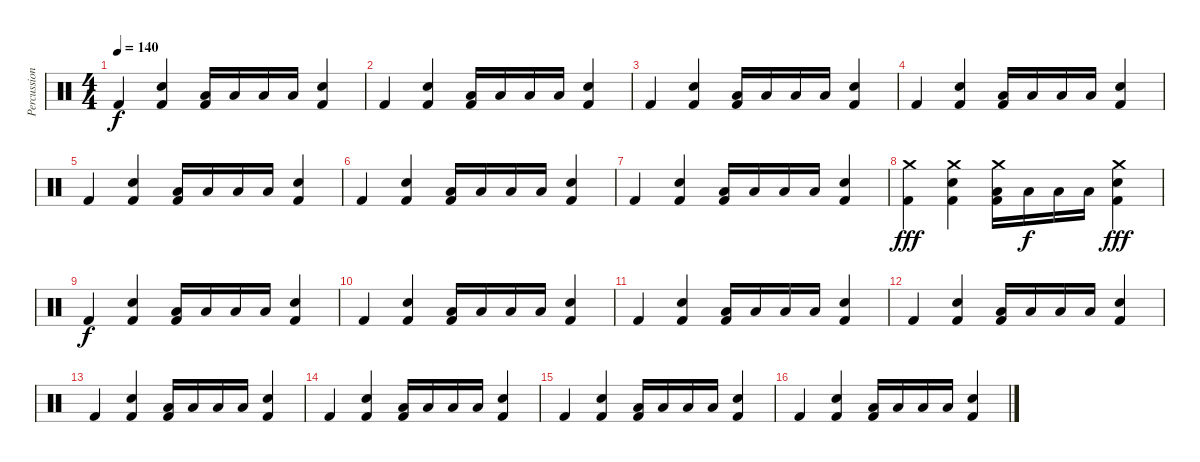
\track ("Percussion" "Percussion") {instrument percussion}
\staff {score}
\articulation defaults
\ts (4 4)
\tempo 140
\clef neutral
\ks c "Kick (hit) 2".4{dy f}
("Snare (hit) 2" "Kick (hit) 2").4 ("Low Tom (hit)" "Kick (hit) 2").16 "Low Tom (hit)".16 "Low Tom (hit)".16 "Low Tom (hit)".16 ("Snare (hit) 2" "Kick (hit) 2").4 |
"Kick (hit) 2".4 ("Snare (hit) 2" "Kick (hit) 2").4 ("Low Tom (hit)" "Kick (hit) 2").16 "Low Tom (hit)".16 "Low Tom (hit)".16 "Low Tom (hit)".16 ("Snare (hit) 2" "Kick (hit) 2").4 |
"Kick (hit) 2".4 ("Snare (hit) 2" "Kick (hit) 2").4 ("Low Tom (hit)" "Kick (hit) 2").16 "Low Tom (hit)".16 "Low Tom (hit)".16 "Low Tom (hit)".16 ("Snare (hit) 2" "Kick (hit) 2").4 |
"Kick (hit) 2".4 ("Snare (hit) 2" "Kick (hit) 2").4 ("Low Tom (hit)" "Kick (hit) 2").16 "Low Tom (hit)".16 "Low Tom (hit)".16 "Low Tom (hit)".16 ("Snare (hit) 2" "Kick (hit) 2").4 |
"Kick (hit) 2".4 ("Snare (hit) 2" "Kick (hit) 2").4 ("Low Tom (hit)" "Kick (hit) 2").16 "Low Tom (hit)".16 "Low Tom (hit)".16 "Low Tom (hit)".16 ("Snare (hit) 2" "Kick (hit) 2").4 |
"Kick (hit) 2".4 ("Snare (hit) 2" "Kick (hit) 2").4 ("Low Tom (hit)" "Kick (hit) 2").16 "Low Tom (hit)".16 "Low Tom (hit)".16 "Low Tom (hit)".16 ("Snare (hit) 2" "Kick (hit) 2").4 |
"Kick (hit) 2".4 ("Snare (hit) 2" "Kick (hit) 2").4 ("Low Tom (hit)" "Kick (hit) 2").16 "Low Tom (hit)".16 "Low Tom (hit)".16 "Low Tom (hit)".16 ("Snare (hit) 2" "Kick (hit) 2").4 |
("Crash medium (hit)" "Kick (hit) 2").4{dy fff} ("Crash medium (hit)" "Snare (hit) 2" "Kick (hit) 2").4 ("Crash medium (hit)" "Low Tom (hit)" "Kick (hit) 2").16 "Low Tom (hit)".16{dy f} "Low Tom (hit)".16 "Low Tom (hit)".16 ("Crash medium (hit)" "Snare (hit) 2" "Kick (hit) 2").4{dy fff} |
"Kick (hit) 2".4{dy f} ("Snare (hit) 2" "Kick (hit) 2").4 ("Low Tom (hit)" "Kick (hit) 2").16 "Low Tom (hit)".16 "Low Tom (hit)".16 "Low Tom (hit)".16 ("Snare (hit) 2" "Kick (hit) 2").4 |
"Kick (hit) 2".4 ("Snare (hit) 2" "Kick (hit) 2").4 ("Low Tom (hit)" "Kick (hit) 2").16 "Low Tom (hit)".16 "Low Tom (hit)".16 "Low Tom (hit)".16 ("Snare (hit) 2" "Kick (hit) 2").4 |
"Kick (hit) 2".4 ("Snare (hit) 2" "Kick (hit) 2").4 ("Low Tom (hit)" "Kick (hit) 2").16 "Low Tom (hit)".16 "Low Tom (hit)".16 "Low Tom (hit)".16 ("Snare (hit) 2" "Kick (hit) 2").4 |
"Kick (hit) 2".4 ("Snare (hit) 2" "Kick (hit) 2").4 ("Low Tom (hit)" "Kick (hit) 2").16 "Low Tom (hit)".16 "Low Tom (hit)".16 "Low Tom (hit)".16 ("Snare (hit) 2" "Kick (hit) 2").4 |
"Kick (hit) 2".4 ("Snare (hit) 2" "Kick (hit) 2").4 ("Low Tom (hit)" "Kick (hit) 2").16 "Low Tom (hit)".16 "Low Tom (hit)".16 "Low Tom (hit)".16 ("Snare (hit) 2" "Kick (hit) 2").4 |
"Kick (hit) 2".4 ("Snare (hit) 2" "Kick (hit) 2").4 ("Low Tom (hit)" "Kick (hit) 2").16 "Low Tom (hit)".16 "Low Tom (hit)".16 "Low Tom (hit)".16 ("Snare (hit) 2" "Kick (hit) 2").4 |
"Kick (hit) 2".4 ("Snare (hit) 2" "Kick (hit) 2").4 ("Low Tom (hit)" "Kick (hit) 2").16 "Low Tom (hit)".16 "Low Tom (hit)".16 "Low Tom (hit)".16 ("Snare (hit) 2" "Kick (hit) 2").4 |
"Kick (hit) 2".4 ("Snare (hit) 2" "Kick (hit) 2").4 ("Low Tom (hit)" "Kick (hit) 2").16 "Low Tom (hit)".16 "Low Tom (hit)".16 "Low Tom (hit)".16 ("Snare (hit) 2" "Kick (hit) 2").4
